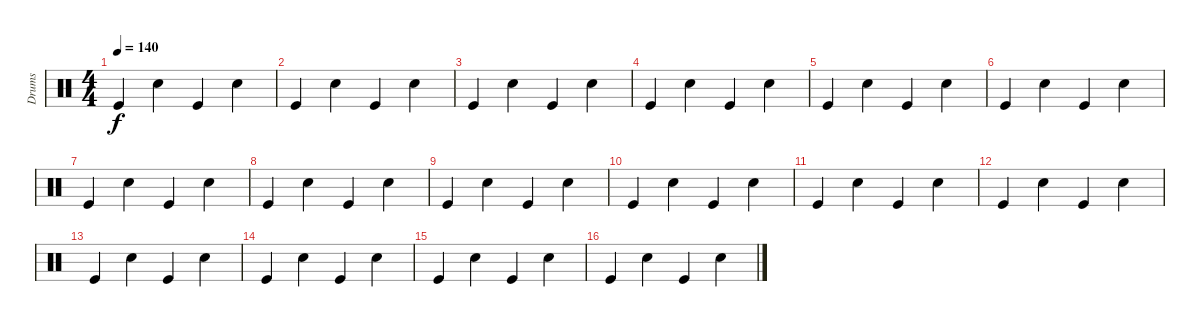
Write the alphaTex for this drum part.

\track ("Drums" "Drums") {instrument percussion}
\staff {score}
\articulation defaults
\ts (4 4)
\tempo 140
\clef neutral
\ks c "Kick (hit)".4{dy f} "Snare (hit) 2".4 "Kick (hit)".4 "Snare (hit) 2".4
|
"Kick (hit)".4 "Snare (hit) 2".4 "Kick (hit)".4 "Snare (hit) 2".4 |
"Kick (hit)".4 "Snare (hit) 2".4 "Kick (hit)".4 "Snare (hit) 2".4 |
"Kick (hit)".4 "Snare (hit) 2".4 "Kick (hit)".4 "Snare (hit) 2".4 |
"Kick (hit)".4 "Snare (hit) 2".4 "Kick (hit)".4 "Snare (hit) 2".4 |
"Kick (hit)".4 "Snare (hit) 2".4 "Kick (hit)".4 "Snare (hit) 2".4 |
"Kick (hit)".4 "Snare (hit) 2".4 "Kick (hit)".4 "Snare (hit) 2".4 |
"Kick (hit)".4 "Snare (hit) 2".4 "Kick (hit)".4 "Snare (hit) 2".4 |
"Kick (hit)".4 "Snare (hit) 2".4 "Kick (hit)".4 "Snare (hit) 2".4 |
"Kick (hit)".4 "Snare (hit) 2".4 "Kick (hit)".4 "Snare (hit) 2".4 |
"Kick (hit)".4 "Snare (hit) 2".4 "Kick (hit)".4 "Snare (hit) 2".4 |
"Kick (hit)".4 "Snare (hit) 2".4 "Kick (hit)".4 "Snare (hit) 2".4 |
"Kick (hit)".4 "Snare (hit) 2".4 "Kick (hit)".4 "Snare (hit) 2".4 |
"Kick (hit)".4 "Snare (hit) 2".4 "Kick (hit)".4 "Snare (hit) 2".4 |
"Kick (hit)".4 "Snare (hit) 2".4 "Kick (hit)".4 "Snare (hit) 2".4 |
"Kick (hit)".4 "Snare (hit) 2".4 "Kick (hit)".4 "Snare (hit) 2".4
